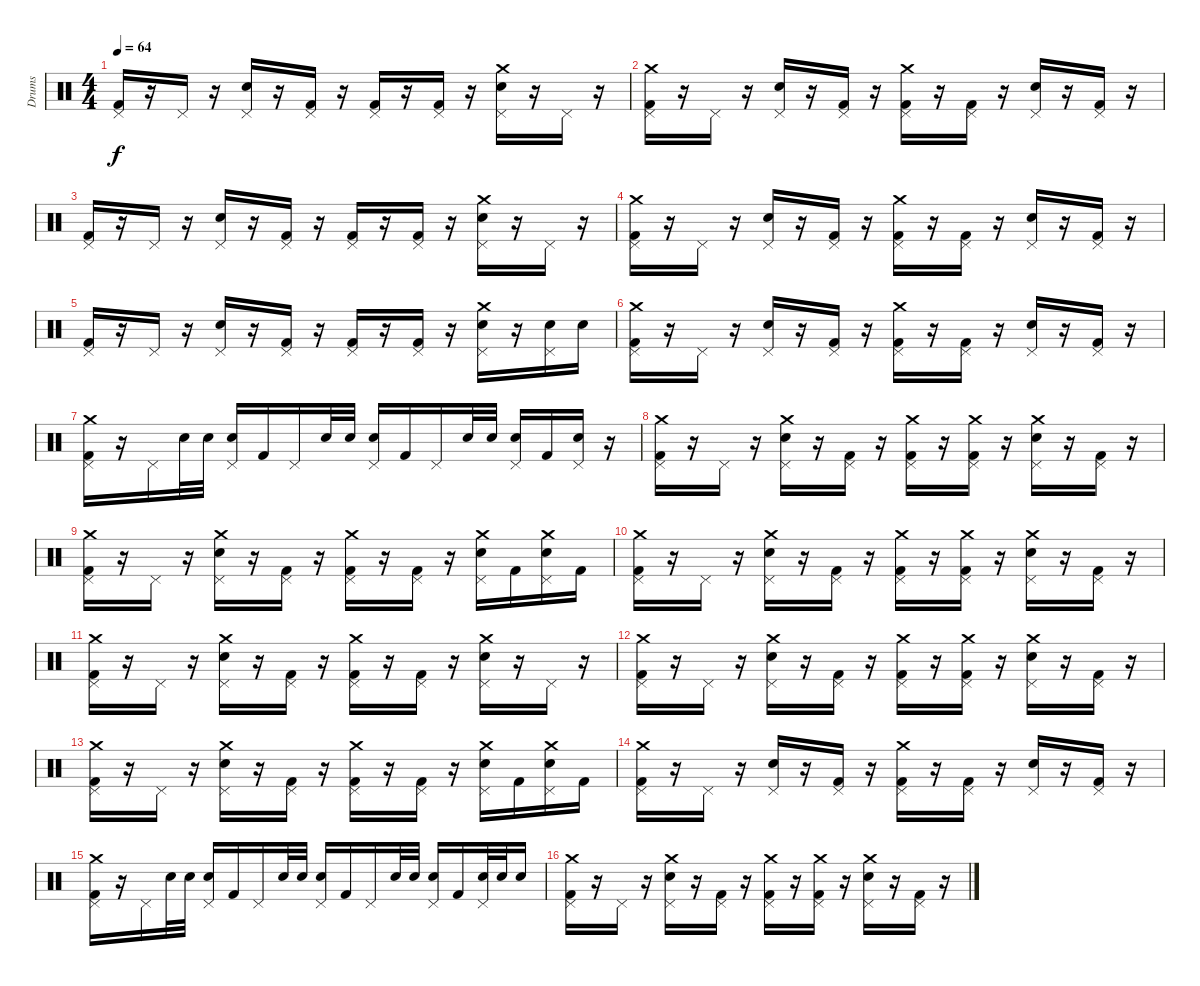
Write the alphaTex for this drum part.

\track ("Drums" "Drums") {instrument percussion}
\staff {score}
\articulation defaults
\ts (4 4)
\tempo 64
\clef neutral
\ks c
("Pedal Hi-Hat (hit)" "Kick (hit) 2").16{dy f} r.16 "Pedal Hi-Hat (hit)".16 r.16 ("Pedal Hi-Hat (hit)" "Snare (hit) 2").16 r.16 ("Pedal Hi-Hat (hit)" "Kick (hit) 2").16 r.16 ("Pedal Hi-Hat (hit)" "Kick (hit) 2").16 r.16 ("Pedal Hi-Hat (hit)" "Kick (hit) 2").16 r.16 ("Crash medium (hit)" "Pedal Hi-Hat (hit)" "Snare (hit) 2").16 r.16 "Pedal Hi-Hat (hit)".16 r.16 |
("Crash medium (hit)" "Pedal Hi-Hat (hit)" "Kick (hit) 2").16 r.16 "Pedal Hi-Hat (hit)".16 r.16 ("Pedal Hi-Hat (hit)" "Snare (hit) 2").16 r.16 ("Pedal Hi-Hat (hit)" "Kick (hit) 2").16 r.16 ("Crash medium (hit)" "Pedal Hi-Hat (hit)" "Kick (hit) 2").16 r.16 ("Pedal Hi-Hat (hit)" "Kick (hit) 2").16 r.16 ("Pedal Hi-Hat (hit)" "Snare (hit) 2").16 r.16 ("Pedal Hi-Hat (hit)" "Kick (hit) 2").16 r.16 |
("Pedal Hi-Hat (hit)" "Kick (hit) 2").16 r.16 "Pedal Hi-Hat (hit)".16 r.16 ("Pedal Hi-Hat (hit)" "Snare (hit) 2").16 r.16 ("Pedal Hi-Hat (hit)" "Kick (hit) 2").16 r.16 ("Pedal Hi-Hat (hit)" "Kick (hit) 2").16 r.16 ("Pedal Hi-Hat (hit)" "Kick (hit) 2").16 r.16 ("Crash medium (hit)" "Pedal Hi-Hat (hit)" "Snare (hit) 2").16 r.16 "Pedal Hi-Hat (hit)".16 r.16 |
("Crash medium (hit)" "Pedal Hi-Hat (hit)" "Kick (hit) 2").16 r.16 "Pedal Hi-Hat (hit)".16 r.16 ("Pedal Hi-Hat (hit)" "Snare (hit) 2").16 r.16 ("Pedal Hi-Hat (hit)" "Kick (hit) 2").16 r.16 ("Crash medium (hit)" "Pedal Hi-Hat (hit)" "Kick (hit) 2").16 r.16 ("Pedal Hi-Hat (hit)" "Kick (hit) 2").16 r.16 ("Pedal Hi-Hat (hit)" "Snare (hit) 2").16 r.16 ("Pedal Hi-Hat (hit)" "Kick (hit) 2").16 r.16 |
("Pedal Hi-Hat (hit)" "Kick (hit) 2").16 r.16 "Pedal Hi-Hat (hit)".16 r.16 ("Pedal Hi-Hat (hit)" "Snare (hit) 2").16 r.16 ("Pedal Hi-Hat (hit)" "Kick (hit) 2").16 r.16 ("Pedal Hi-Hat (hit)" "Kick (hit) 2").16 r.16 ("Pedal Hi-Hat (hit)" "Kick (hit) 2").16 r.16 ("Crash medium (hit)" "Pedal Hi-Hat (hit)" "Snare (hit) 2").16 r.16 ("Pedal Hi-Hat (hit)" "Snare (hit) 2").16 "Snare (hit) 2".16 |
("Crash medium (hit)" "Pedal Hi-Hat (hit)" "Kick (hit) 2").16 r.16 "Pedal Hi-Hat (hit)".16 r.16 ("Pedal Hi-Hat (hit)" "Snare (hit) 2").16 r.16 ("Pedal Hi-Hat (hit)" "Kick (hit) 2").16 r.16 ("Crash medium (hit)" "Pedal Hi-Hat (hit)" "Kick (hit) 2").16 r.16 ("Pedal Hi-Hat (hit)" "Kick (hit) 2").16 r.16 ("Pedal Hi-Hat (hit)" "Snare (hit) 2").16 r.16 ("Pedal Hi-Hat (hit)" "Kick (hit) 2").16 r.16 |
("Crash medium (hit)" "Pedal Hi-Hat (hit)" "Kick (hit) 2").16 r.16 "Pedal Hi-Hat (hit)".16 "Snare (hit) 2".32 "Snare (hit) 2".32 ("Pedal Hi-Hat (hit)" "Snare (hit) 2").16 "Kick (hit) 2".16 "Pedal Hi-Hat (hit)".16 "Snare (hit) 2".32 "Snare (hit) 2".32 ("Pedal Hi-Hat (hit)" "Snare (hit) 2").16 "Kick (hit) 2".16 "Pedal Hi-Hat (hit)".16 "Snare (hit) 2".32 "Snare (hit) 2".32 ("Pedal Hi-Hat (hit)" "Snare (hit) 2").16 "Kick (hit) 2".16 ("Pedal Hi-Hat (hit)" "Snare (hit) 2").16 r.16 |
("Crash medium (hit)" "Pedal Hi-Hat (hit)" "Kick (hit) 2").16 r.16 "Pedal Hi-Hat (hit)".16 r.16 ("Crash medium (hit)" "Pedal Hi-Hat (hit)" "Snare (hit) 2").16 r.16 ("Pedal Hi-Hat (hit)" "Kick (hit) 2").16 r.16 ("Crash medium (hit)" "Pedal Hi-Hat (hit)" "Kick (hit) 2").16 r.16 ("Crash medium (hit)" "Pedal Hi-Hat (hit)" "Kick (hit) 2").16 r.16 ("Crash medium (hit)" "Pedal Hi-Hat (hit)" "Snare (hit) 2").16 r.16 ("Pedal Hi-Hat (hit)" "Kick (hit) 2").16 r.16 |
("Crash medium (hit)" "Pedal Hi-Hat (hit)" "Kick (hit) 2").16 r.16 "Pedal Hi-Hat (hit)".16 r.16 ("Crash medium (hit)" "Pedal Hi-Hat (hit)" "Snare (hit) 2").16 r.16 ("Pedal Hi-Hat (hit)" "Kick (hit) 2").16 r.16 ("Crash medium (hit)" "Pedal Hi-Hat (hit)" "Kick (hit) 2").16 r.16 ("Pedal Hi-Hat (hit)" "Kick (hit) 2").16 r.16 ("Crash medium (hit)" "Pedal Hi-Hat (hit)" "Snare (hit) 2").16 "Kick (hit) 2".16 ("Crash medium (hit)" "Pedal Hi-Hat (hit)" "Snare (hit) 2").16 "Kick (hit) 2".16 |
("Crash medium (hit)" "Pedal Hi-Hat (hit)" "Kick (hit) 2").16 r.16 "Pedal Hi-Hat (hit)".16 r.16 ("Crash medium (hit)" "Pedal Hi-Hat (hit)" "Snare (hit) 2").16 r.16 ("Pedal Hi-Hat (hit)" "Kick (hit) 2").16 r.16 ("Crash medium (hit)" "Pedal Hi-Hat (hit)" "Kick (hit) 2").16 r.16 ("Crash medium (hit)" "Pedal Hi-Hat (hit)" "Kick (hit) 2").16 r.16 ("Crash medium (hit)" "Pedal Hi-Hat (hit)" "Snare (hit) 2").16 r.16 ("Pedal Hi-Hat (hit)" "Kick (hit) 2").16 r.16 |
("Crash medium (hit)" "Pedal Hi-Hat (hit)" "Kick (hit) 2").16 r.16 "Pedal Hi-Hat (hit)".16 r.16 ("Crash medium (hit)" "Pedal Hi-Hat (hit)" "Snare (hit) 2").16 r.16 ("Pedal Hi-Hat (hit)" "Kick (hit) 2").16 r.16 ("Crash medium (hit)" "Pedal Hi-Hat (hit)" "Kick (hit) 2").16 r.16 ("Pedal Hi-Hat (hit)" "Kick (hit) 2").16 r.16 ("Crash medium (hit)" "Pedal Hi-Hat (hit)" "Snare (hit) 2").16 r.16 "Pedal Hi-Hat (hit)".16 r.16 |
("Crash medium (hit)" "Pedal Hi-Hat (hit)" "Kick (hit) 2").16 r.16 "Pedal Hi-Hat (hit)".16 r.16 ("Crash medium (hit)" "Pedal Hi-Hat (hit)" "Snare (hit) 2").16 r.16 ("Pedal Hi-Hat (hit)" "Kick (hit) 2").16 r.16 ("Crash medium (hit)" "Pedal Hi-Hat (hit)" "Kick (hit) 2").16 r.16 ("Crash medium (hit)" "Pedal Hi-Hat (hit)" "Kick (hit) 2").16 r.16 ("Crash medium (hit)" "Pedal Hi-Hat (hit)" "Snare (hit) 2").16 r.16 ("Pedal Hi-Hat (hit)" "Kick (hit) 2").16 r.16 |
("Crash medium (hit)" "Pedal Hi-Hat (hit)" "Kick (hit) 2").16 r.16 "Pedal Hi-Hat (hit)".16 r.16 ("Crash medium (hit)" "Pedal Hi-Hat (hit)" "Snare (hit) 2").16 r.16 ("Pedal Hi-Hat (hit)" "Kick (hit) 2").16 r.16 ("Crash medium (hit)" "Pedal Hi-Hat (hit)" "Kick (hit) 2").16 r.16 ("Pedal Hi-Hat (hit)" "Kick (hit) 2").16 r.16 ("Crash medium (hit)" "Pedal Hi-Hat (hit)" "Snare (hit) 2").16 "Kick (hit) 2".16 ("Crash medium (hit)" "Pedal Hi-Hat (hit)" "Snare (hit) 2").16 "Kick (hit) 2".16 |
("Crash medium (hit)" "Pedal Hi-Hat (hit)" "Kick (hit) 2").16 r.16 "Pedal Hi-Hat (hit)".16 r.16 ("Pedal Hi-Hat (hit)" "Snare (hit) 2").16 r.16 ("Pedal Hi-Hat (hit)" "Kick (hit) 2").16 r.16 ("Crash medium (hit)" "Pedal Hi-Hat (hit)" "Kick (hit) 2").16 r.16 ("Pedal Hi-Hat (hit)" "Kick (hit) 2").16 r.16 ("Pedal Hi-Hat (hit)" "Snare (hit) 2").16 r.16 ("Pedal Hi-Hat (hit)" "Kick (hit) 2").16 r.16 |
("Crash medium (hit)" "Pedal Hi-Hat (hit)" "Kick (hit) 2").16 r.16 "Pedal Hi-Hat (hit)".16 "Snare (hit) 2".32 "Snare (hit) 2".32 ("Pedal Hi-Hat (hit)" "Snare (hit) 2").16 "Kick (hit) 2".16 "Pedal Hi-Hat (hit)".16 "Snare (hit) 2".32 "Snare (hit) 2".32 ("Pedal Hi-Hat (hit)" "Snare (hit) 2").16 "Kick (hit) 2".16 "Pedal Hi-Hat (hit)".16 "Snare (hit) 2".32 "Snare (hit) 2".32 ("Pedal Hi-Hat (hit)" "Snare (hit) 2").16 "Kick (hit) 2".16 ("Pedal Hi-Hat (hit)" "Snare (hit) 2").32 "Snare (hit) 2".32 "Snare (hit) 2".16 |
("Crash medium (hit)" "Pedal Hi-Hat (hit)" "Kick (hit) 2").16 r.16 "Pedal Hi-Hat (hit)".16 r.16 ("Crash medium (hit)" "Pedal Hi-Hat (hit)" "Snare (hit) 2").16 r.16 ("Pedal Hi-Hat (hit)" "Kick (hit) 2").16 r.16 ("Crash medium (hit)" "Pedal Hi-Hat (hit)" "Kick (hit) 2").16 r.16 ("Crash medium (hit)" "Pedal Hi-Hat (hit)" "Kick (hit) 2").16 r.16 ("Crash medium (hit)" "Pedal Hi-Hat (hit)" "Snare (hit) 2").16 r.16 ("Pedal Hi-Hat (hit)" "Kick (hit) 2").16 r.16
